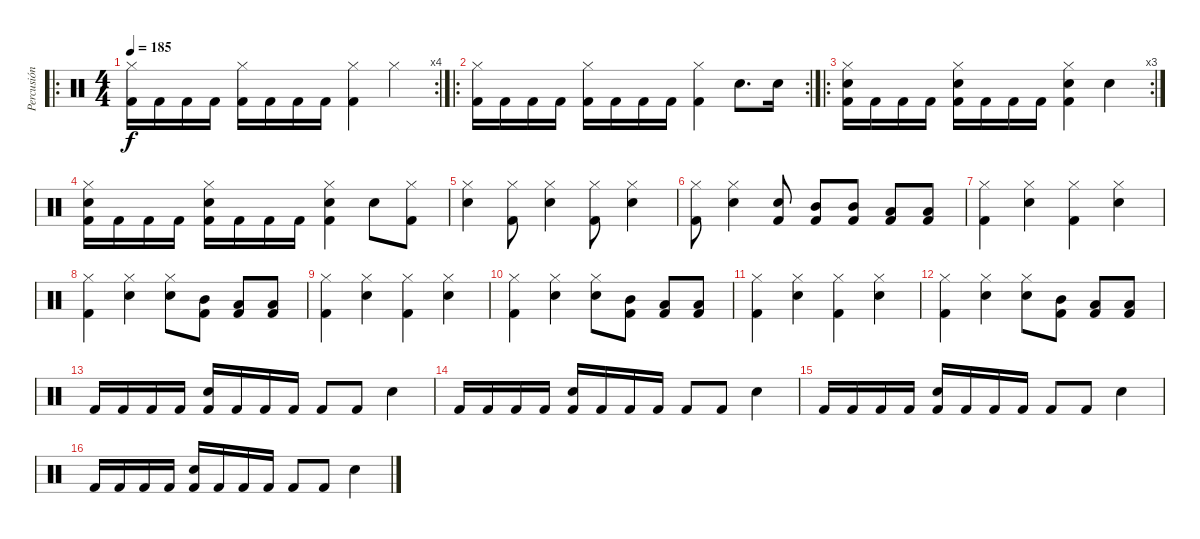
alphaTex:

\track ("Percusión" "Percusión") {instrument percussion}
\staff {score}
\articulation defaults
\ro
\rc 4
\ts (4 4)
\tempo 185
\clef neutral
\ks c
("Hi-Hat (closed)" "Kick (hit) 2").16{dy f} "Kick (hit) 2".16 "Kick (hit) 2".16 "Kick (hit) 2".16 ("Hi-Hat (closed)" "Kick (hit) 2").16 "Kick (hit) 2".16 "Kick (hit) 2".16 "Kick (hit) 2".16 ("Hi-Hat (closed)" "Kick (hit) 2").4 "Hi-Hat (closed)".4 |
\ro
\rc 2
("Hi-Hat (closed)" "Kick (hit) 2").16 "Kick (hit) 2".16 "Kick (hit) 2".16 "Kick (hit) 2".16 ("Hi-Hat (closed)" "Kick (hit) 2").16 "Kick (hit) 2".16 "Kick (hit) 2".16 "Kick (hit) 2".16 ("Hi-Hat (closed)" "Kick (hit) 2").4 "Snare (hit) 2".8{d} "Snare (hit) 2".16 |
\ro
\rc 3
("Snare (hit) 2" "Hi-Hat (closed)" "Kick (hit) 2").16 "Kick (hit) 2".16 "Kick (hit) 2".16 "Kick (hit) 2".16 ("Snare (hit) 2" "Hi-Hat (closed)" "Kick (hit) 2").16 "Kick (hit) 2".16 "Kick (hit) 2".16 "Kick (hit) 2".16 ("Snare (hit) 2" "Hi-Hat (closed)" "Kick (hit) 2").4 "Snare (hit) 2".4 |
("Snare (hit) 2" "Hi-Hat (closed)" "Kick (hit) 2").16 "Kick (hit) 2".16 "Kick (hit) 2".16 "Kick (hit) 2".16 ("Snare (hit) 2" "Hi-Hat (closed)" "Kick (hit) 2").16 "Kick (hit) 2".16 "Kick (hit) 2".16 "Kick (hit) 2".16 ("Snare (hit) 2" "Hi-Hat (closed)" "Kick (hit) 2").4 "Snare (hit) 2".8 ("Hi-Hat (closed)" "Kick (hit) 2").8 |
("Hi-Hat (closed)" "Snare (hit) 2").4 ("Hi-Hat (closed)" "Kick (hit) 2").8 ("Hi-Hat (closed)" "Snare (hit) 2").4 ("Hi-Hat (closed)" "Kick (hit) 2").8 ("Hi-Hat (closed)" "Snare (hit) 2").4 |
("Hi-Hat (closed)" "Kick (hit) 2").8 ("Hi-Hat (closed)" "Snare (hit) 2").4 ("Kick (hit) 2" "Snare (hit) 2").8 ("Kick (hit) 2" "Mid Tom (hit)").8 ("Kick (hit) 2" "Mid Tom (hit)").8 ("Kick (hit) 2" "Low Tom (hit)").8 ("Kick (hit) 2" "Low Tom (hit)").8 |
("Hi-Hat (closed)" "Kick (hit) 2").4 ("Hi-Hat (closed)" "Snare (hit) 2").4 ("Hi-Hat (closed)" "Kick (hit) 2").4 ("Hi-Hat (closed)" "Snare (hit) 2").4 |
("Hi-Hat (closed)" "Kick (hit) 2").4 ("Hi-Hat (closed)" "Snare (hit) 2").4 ("Hi-Hat (closed)" "Snare (hit) 2").8 ("Mid Tom (hit)" "Kick (hit) 2").8 ("Low Tom (hit)" "Kick (hit) 2").8 ("Low Tom (hit)" "Kick (hit) 2").8 |
("Hi-Hat (closed)" "Kick (hit) 2").4 ("Hi-Hat (closed)" "Snare (hit) 2").4 ("Hi-Hat (closed)" "Kick (hit) 2").4 ("Hi-Hat (closed)" "Snare (hit) 2").4 |
("Hi-Hat (closed)" "Kick (hit) 2").4 ("Hi-Hat (closed)" "Snare (hit) 2").4 ("Hi-Hat (closed)" "Snare (hit) 2").8 ("Mid Tom (hit)" "Kick (hit) 2").8 ("Low Tom (hit)" "Kick (hit) 2").8 ("Low Tom (hit)" "Kick (hit) 2").8 |
("Hi-Hat (closed)" "Kick (hit) 2").4 ("Hi-Hat (closed)" "Snare (hit) 2").4 ("Hi-Hat (closed)" "Kick (hit) 2").4 ("Hi-Hat (closed)" "Snare (hit) 2").4 |
("Hi-Hat (closed)" "Kick (hit) 2").4 ("Hi-Hat (closed)" "Snare (hit) 2").4 ("Hi-Hat (closed)" "Snare (hit) 2").8 ("Mid Tom (hit)" "Kick (hit) 2").8 ("Low Tom (hit)" "Kick (hit) 2").8 ("Low Tom (hit)" "Kick (hit) 2").8 |
"Kick (hit) 2".16 "Kick (hit) 2".16 "Kick (hit) 2".16 "Kick (hit) 2".16 ("Snare (hit) 2" "Kick (hit) 2").16 "Kick (hit) 2".16 "Kick (hit) 2".16 "Kick (hit) 2".16 "Kick (hit) 2".8 "Kick (hit) 2".8 "Snare (hit) 2".4 |
"Kick (hit) 2".16 "Kick (hit) 2".16 "Kick (hit) 2".16 "Kick (hit) 2".16 ("Snare (hit) 2" "Kick (hit) 2").16 "Kick (hit) 2".16 "Kick (hit) 2".16 "Kick (hit) 2".16 "Kick (hit) 2".8 "Kick (hit) 2".8 "Snare (hit) 2".4 |
"Kick (hit) 2".16 "Kick (hit) 2".16 "Kick (hit) 2".16 "Kick (hit) 2".16 ("Snare (hit) 2" "Kick (hit) 2").16 "Kick (hit) 2".16 "Kick (hit) 2".16 "Kick (hit) 2".16 "Kick (hit) 2".8 "Kick (hit) 2".8 "Snare (hit) 2".4 |
"Kick (hit) 2".16 "Kick (hit) 2".16 "Kick (hit) 2".16 "Kick (hit) 2".16 ("Snare (hit) 2" "Kick (hit) 2").16 "Kick (hit) 2".16 "Kick (hit) 2".16 "Kick (hit) 2".16 "Kick (hit) 2".8 "Kick (hit) 2".8 "Snare (hit) 2".4
